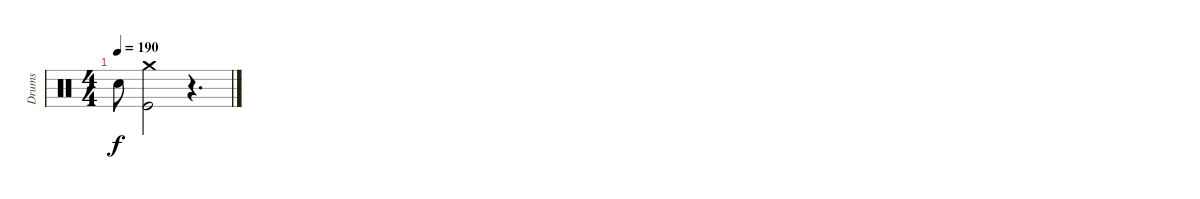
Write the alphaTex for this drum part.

\track ("Drums" "Drums") {instrument percussion}
\staff {score}
\articulation defaults
\ts (4 4)
\tempo 190
\clef neutral
\ks c "Electric Snare (hit)".8{dy f}
("Crash medium (hit)" "Kick (hit)").2 r.4{d}
